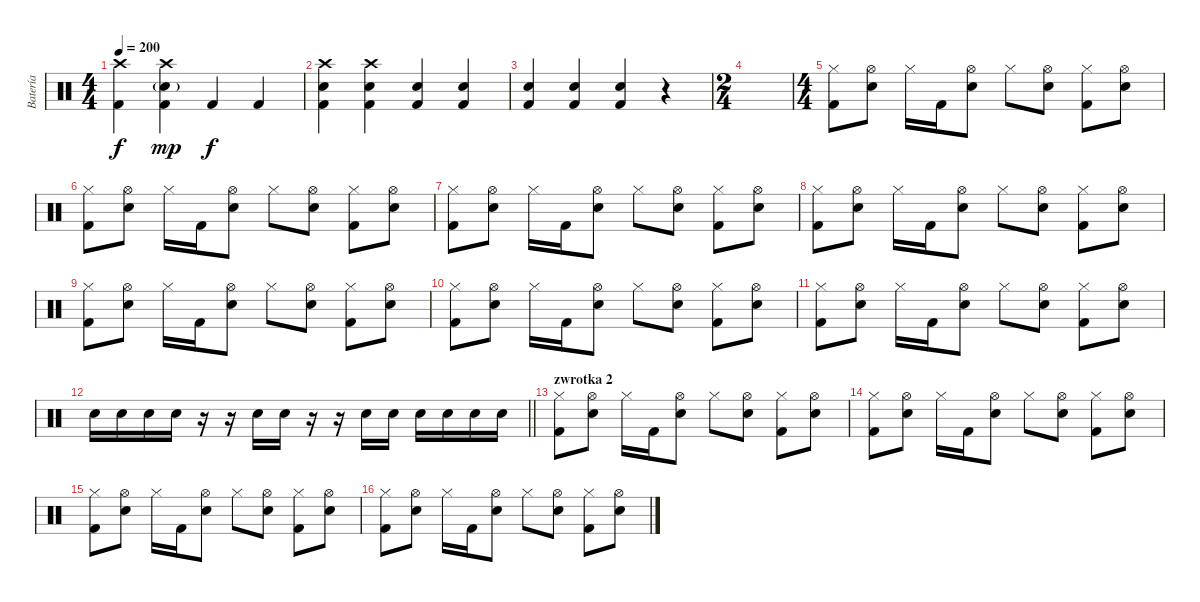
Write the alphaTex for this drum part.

\track ("Batería" "Batería") {instrument percussion}
\staff {score}
\articulation defaults
\ts (4 4)
\tempo 200
\clef neutral
\ks c
("Crash high (hit)" "Kick (hit) 2").4{dy f} ("Crash high (hit)" "Snare (hit) 2"{g} "Kick (hit) 2").4{dy mp} "Kick (hit) 2".4{dy f} "Kick (hit) 2".4 |
("Crash high (hit)" "Snare (hit) 2" "Kick (hit) 2").4 ("Crash high (hit)" "Snare (hit) 2" "Kick (hit) 2").4 ("Snare (hit) 2" "Kick (hit) 2").4 ("Snare (hit) 2" "Kick (hit) 2").4 |
("Snare (hit) 2" "Kick (hit) 2").4 ("Snare (hit) 2" "Kick (hit) 2").4 ("Snare (hit) 2" "Kick (hit) 2").4 r.4 |
\ts (2 4)
|
\ts (4 4)
("Hi-Hat (closed)" "Kick (hit) 2").8 ("Hi-Hat (open)" "Snare (hit) 2").8 "Hi-Hat (closed)".16 "Kick (hit) 2".16 ("Hi-Hat (open)" "Snare (hit) 2").8 "Hi-Hat (closed)".8 ("Hi-Hat (open)" "Snare (hit) 2").8 ("Hi-Hat (closed)" "Kick (hit) 2").8 ("Hi-Hat (open)" "Snare (hit) 2").8 |
("Hi-Hat (closed)" "Kick (hit) 2").8 ("Hi-Hat (open)" "Snare (hit) 2").8 "Hi-Hat (closed)".16 "Kick (hit) 2".16 ("Hi-Hat (open)" "Snare (hit) 2").8 "Hi-Hat (closed)".8 ("Hi-Hat (open)" "Snare (hit) 2").8 ("Hi-Hat (closed)" "Kick (hit) 2").8 ("Hi-Hat (open)" "Snare (hit) 2").8 |
("Hi-Hat (closed)" "Kick (hit) 2").8 ("Hi-Hat (open)" "Snare (hit) 2").8 "Hi-Hat (closed)".16 "Kick (hit) 2".16 ("Hi-Hat (open)" "Snare (hit) 2").8 "Hi-Hat (closed)".8 ("Hi-Hat (open)" "Snare (hit) 2").8 ("Hi-Hat (closed)" "Kick (hit) 2").8 ("Hi-Hat (open)" "Snare (hit) 2").8 |
("Hi-Hat (closed)" "Kick (hit) 2").8 ("Hi-Hat (open)" "Snare (hit) 2").8 "Hi-Hat (closed)".16 "Kick (hit) 2".16 ("Hi-Hat (open)" "Snare (hit) 2").8 "Hi-Hat (closed)".8 ("Hi-Hat (open)" "Snare (hit) 2").8 ("Hi-Hat (closed)" "Kick (hit) 2").8 ("Hi-Hat (open)" "Snare (hit) 2").8 |
("Hi-Hat (closed)" "Kick (hit) 2").8 ("Hi-Hat (open)" "Snare (hit) 2").8 "Hi-Hat (closed)".16 "Kick (hit) 2".16 ("Hi-Hat (open)" "Snare (hit) 2").8 "Hi-Hat (closed)".8 ("Hi-Hat (open)" "Snare (hit) 2").8 ("Hi-Hat (closed)" "Kick (hit) 2").8 ("Hi-Hat (open)" "Snare (hit) 2").8 |
("Hi-Hat (closed)" "Kick (hit) 2").8 ("Hi-Hat (open)" "Snare (hit) 2").8 "Hi-Hat (closed)".16 "Kick (hit) 2".16 ("Hi-Hat (open)" "Snare (hit) 2").8 "Hi-Hat (closed)".8 ("Hi-Hat (open)" "Snare (hit) 2").8 ("Hi-Hat (closed)" "Kick (hit) 2").8 ("Hi-Hat (open)" "Snare (hit) 2").8 |
("Hi-Hat (closed)" "Kick (hit) 2").8 ("Hi-Hat (open)" "Snare (hit) 2").8 "Hi-Hat (closed)".16 "Kick (hit) 2".16 ("Hi-Hat (open)" "Snare (hit) 2").8 "Hi-Hat (closed)".8 ("Hi-Hat (open)" "Snare (hit) 2").8 ("Hi-Hat (closed)" "Kick (hit) 2").8 ("Hi-Hat (open)" "Snare (hit) 2").8 |
\barLineRight lightlight "Snare (hit) 2".16 "Snare (hit) 2".16 "Snare (hit) 2".16 "Snare (hit) 2".16
r.16 r.16 "Snare (hit) 2".16 "Snare (hit) 2".16 r.16 r.16 "Snare (hit) 2".16 "Snare (hit) 2".16 "Snare (hit) 2".16 "Snare (hit) 2".16 "Snare (hit) 2".16 "Snare (hit) 2".16 |
\section ("" "zwrotka 2")
("Hi-Hat (closed)" "Kick (hit) 2").8 ("Hi-Hat (open)" "Snare (hit) 2").8 "Hi-Hat (closed)".16 "Kick (hit) 2".16 ("Hi-Hat (open)" "Snare (hit) 2").8 "Hi-Hat (closed)".8 ("Hi-Hat (open)" "Snare (hit) 2").8 ("Hi-Hat (closed)" "Kick (hit) 2").8 ("Hi-Hat (open)" "Snare (hit) 2").8 |
("Hi-Hat (closed)" "Kick (hit) 2").8 ("Hi-Hat (open)" "Snare (hit) 2").8 "Hi-Hat (closed)".16 "Kick (hit) 2".16 ("Hi-Hat (open)" "Snare (hit) 2").8 "Hi-Hat (closed)".8 ("Hi-Hat (open)" "Snare (hit) 2").8 ("Hi-Hat (closed)" "Kick (hit) 2").8 ("Hi-Hat (open)" "Snare (hit) 2").8 |
("Hi-Hat (closed)" "Kick (hit) 2").8 ("Hi-Hat (open)" "Snare (hit) 2").8 "Hi-Hat (closed)".16 "Kick (hit) 2".16 ("Hi-Hat (open)" "Snare (hit) 2").8 "Hi-Hat (closed)".8 ("Hi-Hat (open)" "Snare (hit) 2").8 ("Hi-Hat (closed)" "Kick (hit) 2").8 ("Hi-Hat (open)" "Snare (hit) 2").8 |
("Hi-Hat (closed)" "Kick (hit) 2").8 ("Hi-Hat (open)" "Snare (hit) 2").8 "Hi-Hat (closed)".16 "Kick (hit) 2".16 ("Hi-Hat (open)" "Snare (hit) 2").8 "Hi-Hat (closed)".8 ("Hi-Hat (open)" "Snare (hit) 2").8 ("Hi-Hat (closed)" "Kick (hit) 2").8 ("Hi-Hat (open)" "Snare (hit) 2").8
